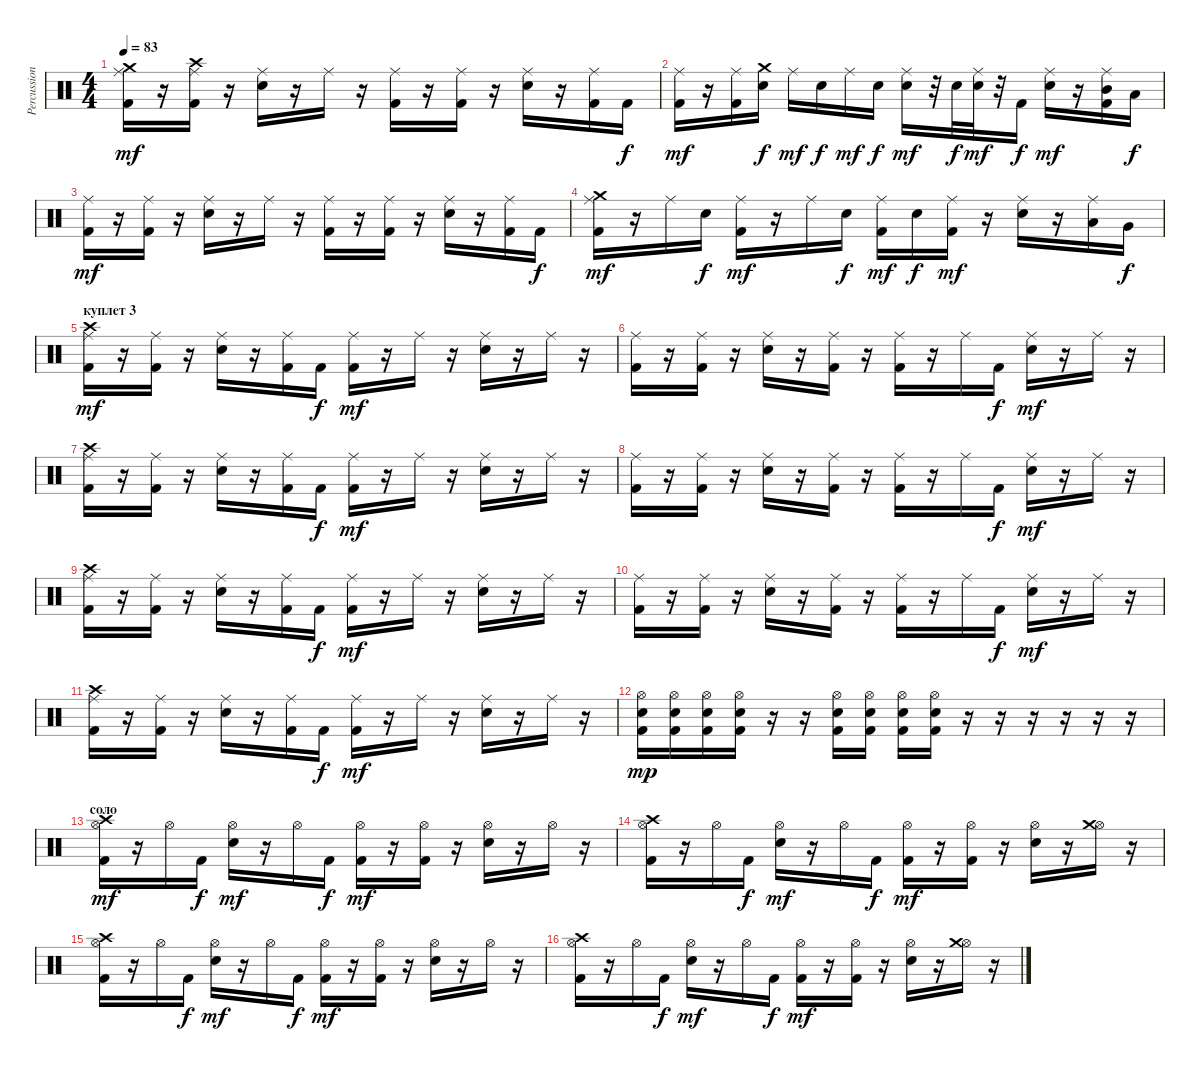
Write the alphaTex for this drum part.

\track ("Percussion" "Percussion") {instrument percussion}
\staff {score}
\articulation defaults
\ts (4 4)
\tempo 83
\clef neutral
\ks c
("Ride (middle)" "Crash medium (hit)" "Kick (hit) 2").16{dy mf} r.16 ("Ride (middle)" "Crash high (hit)" "Kick (hit) 2").16 r.16 ("Ride (middle)" "Electric Snare (hit)").16 r.16 "Ride (middle)".16 r.16 ("Ride (middle)" "Kick (hit) 2").16 r.16 ("Ride (middle)" "Kick (hit) 2").16 r.16 ("Ride (middle)" "Electric Snare (hit)").16 r.16 ("Ride (middle)" "Kick (hit) 2").16 "Kick (hit) 2".16{dy f} |
("Ride (middle)" "Kick (hit) 2").16{dy mf} r.16 ("Ride (middle)" "Kick (hit) 2").16 ("Crash medium (hit)" "Electric Snare (hit)").16{dy f} "Ride (middle)".16{dy mf} "Electric Snare (hit)".16{dy f} "Ride (middle)".16{dy mf} "Electric Snare (hit)".16{dy f} ("Ride (middle)" "Electric Snare (hit)").16{dy mf} r.32 "Electric Snare (hit)".32{dy f} ("Ride (middle)" "Electric Snare (hit)").32{dy mf} r.32 "Kick (hit) 2".16{dy f} ("Ride (middle)" "Electric Snare (hit)").16{dy mf} r.16 ("Ride (middle)" "Mid Tom (hit)" "Kick (hit) 2").16 "Low Tom (hit)".16{dy f} |
("Ride (middle)" "Kick (hit) 2").16{dy mf} r.16 ("Ride (middle)" "Kick (hit) 2").16 r.16 ("Ride (middle)" "Electric Snare (hit)").16 r.16 "Ride (middle)".16 r.16 ("Ride (middle)" "Kick (hit) 2").16 r.16 ("Ride (middle)" "Kick (hit) 2").16 r.16 ("Ride (middle)" "Electric Snare (hit)").16 r.16 ("Ride (middle)" "Kick (hit) 2").16 "Kick (hit) 2".16{dy f} |
("Ride (middle)" "Crash medium (hit)" "Kick (hit) 2").16{dy mf} r.16 "Ride (middle)".16 "Electric Snare (hit)".16{dy f} ("Ride (middle)" "Kick (hit) 2").16{dy mf} r.16 "Ride (middle)".16 "Electric Snare (hit)".16{dy f} ("Ride (middle)" "Kick (hit) 2").16{dy mf} "Electric Snare (hit)".16{dy f} ("Ride (middle)" "Kick (hit) 2").16{dy mf} r.16 ("Ride (middle)" "Electric Snare (hit)").16 r.16 ("Ride (middle)" "Low Tom (hit)").16 "Very Low Tom (hit)".16{dy f} |
\section ("" "куплет 3")
("Ride (middle)" "Crash high (hit)" "Kick (hit) 2").16{dy mf} r.16 ("Ride (middle)" "Kick (hit) 2").16 r.16 ("Ride (middle)" "Electric Snare (hit)").16 r.16 ("Ride (middle)" "Kick (hit) 2").16 "Kick (hit) 2".16{dy f} ("Ride (middle)" "Kick (hit) 2").16{dy mf} r.16 "Ride (middle)".16 r.16 ("Ride (middle)" "Electric Snare (hit)").16 r.16 "Ride (middle)".16 r.16 |
("Ride (middle)" "Kick (hit) 2").16 r.16 ("Ride (middle)" "Kick (hit) 2").16 r.16 ("Ride (middle)" "Electric Snare (hit)").16 r.16 ("Ride (middle)" "Kick (hit) 2").16 r.16 ("Ride (middle)" "Kick (hit) 2").16 r.16 "Ride (middle)".16 "Kick (hit) 2".16{dy f} ("Ride (middle)" "Electric Snare (hit)").16{dy mf} r.16 "Ride (middle)".16 r.16 |
("Ride (middle)" "Crash high (hit)" "Kick (hit) 2").16 r.16 ("Ride (middle)" "Kick (hit) 2").16 r.16 ("Ride (middle)" "Electric Snare (hit)").16 r.16 ("Ride (middle)" "Kick (hit) 2").16 "Kick (hit) 2".16{dy f} ("Ride (middle)" "Kick (hit) 2").16{dy mf} r.16 "Ride (middle)".16 r.16 ("Ride (middle)" "Electric Snare (hit)").16 r.16 "Ride (middle)".16 r.16 |
("Ride (middle)" "Kick (hit) 2").16 r.16 ("Ride (middle)" "Kick (hit) 2").16 r.16 ("Ride (middle)" "Electric Snare (hit)").16 r.16 ("Ride (middle)" "Kick (hit) 2").16 r.16 ("Ride (middle)" "Kick (hit) 2").16 r.16 "Ride (middle)".16 "Kick (hit) 2".16{dy f} ("Ride (middle)" "Electric Snare (hit)").16{dy mf} r.16 "Ride (middle)".16 r.16 |
("Ride (middle)" "Crash high (hit)" "Kick (hit) 2").16 r.16 ("Ride (middle)" "Kick (hit) 2").16 r.16 ("Ride (middle)" "Electric Snare (hit)").16 r.16 ("Ride (middle)" "Kick (hit) 2").16 "Kick (hit) 2".16{dy f} ("Ride (middle)" "Kick (hit) 2").16{dy mf} r.16 "Ride (middle)".16 r.16 ("Ride (middle)" "Electric Snare (hit)").16 r.16 "Ride (middle)".16 r.16 |
("Ride (middle)" "Kick (hit) 2").16 r.16 ("Ride (middle)" "Kick (hit) 2").16 r.16 ("Ride (middle)" "Electric Snare (hit)").16 r.16 ("Ride (middle)" "Kick (hit) 2").16 r.16 ("Ride (middle)" "Kick (hit) 2").16 r.16 "Ride (middle)".16 "Kick (hit) 2".16{dy f} ("Ride (middle)" "Electric Snare (hit)").16{dy mf} r.16 "Ride (middle)".16 r.16 |
("Ride (middle)" "Crash high (hit)" "Kick (hit) 2").16 r.16 ("Ride (middle)" "Kick (hit) 2").16 r.16 ("Ride (middle)" "Electric Snare (hit)").16 r.16 ("Ride (middle)" "Kick (hit) 2").16 "Kick (hit) 2".16{dy f} ("Ride (middle)" "Kick (hit) 2").16{dy mf} r.16 "Ride (middle)".16 r.16 ("Ride (middle)" "Electric Snare (hit)").16 r.16 "Ride (middle)".16 r.16 |
("Hi-Hat (open)" "Electric Snare (hit)" "Kick (hit) 2").16{dy mp} ("Hi-Hat (open)" "Electric Snare (hit)" "Kick (hit) 2").16 ("Hi-Hat (open)" "Electric Snare (hit)" "Kick (hit) 2").16 ("Hi-Hat (open)" "Electric Snare (hit)" "Kick (hit) 2").16 r.16 r.16 ("Hi-Hat (open)" "Electric Snare (hit)" "Kick (hit) 2").16 ("Hi-Hat (open)" "Electric Snare (hit)" "Kick (hit) 2").16 ("Hi-Hat (open)" "Electric Snare (hit)" "Kick (hit) 2").16 ("Hi-Hat (open)" "Electric Snare (hit)" "Kick (hit) 2").16 r.16 r.16 r.16 r.16 r.16 r.16 |
\section ("" "соло")
("Hi-Hat (open)" "Crash high (hit)" "Kick (hit) 2").16{dy mf} r.16 "Hi-Hat (open)".16 "Kick (hit) 2".16{dy f} ("Hi-Hat (open)" "Electric Snare (hit)").16{dy mf} r.16 "Hi-Hat (open)".16 "Kick (hit) 2".16{dy f} ("Hi-Hat (open)" "Kick (hit) 2").16{dy mf} r.16 ("Hi-Hat (open)" "Kick (hit) 2").16 r.16 ("Hi-Hat (open)" "Electric Snare (hit)").16 r.16 "Hi-Hat (open)".16 r.16 |
("Hi-Hat (open)" "Crash high (hit)" "Kick (hit) 2").16 r.16 "Hi-Hat (open)".16 "Kick (hit) 2".16{dy f} ("Hi-Hat (open)" "Electric Snare (hit)").16{dy mf} r.16 "Hi-Hat (open)".16 "Kick (hit) 2".16{dy f} ("Hi-Hat (open)" "Kick (hit) 2").16{dy mf} r.16 ("Hi-Hat (open)" "Kick (hit) 2").16 r.16 ("Hi-Hat (open)" "Electric Snare (hit)").16 r.16 ("Hi-Hat (open)" "Crash medium (hit)").16 r.16 |
("Hi-Hat (open)" "Crash high (hit)" "Kick (hit) 2").16 r.16 "Hi-Hat (open)".16 "Kick (hit) 2".16{dy f} ("Hi-Hat (open)" "Electric Snare (hit)").16{dy mf} r.16 "Hi-Hat (open)".16 "Kick (hit) 2".16{dy f} ("Hi-Hat (open)" "Kick (hit) 2").16{dy mf} r.16 ("Hi-Hat (open)" "Kick (hit) 2").16 r.16 ("Hi-Hat (open)" "Electric Snare (hit)").16 r.16 "Hi-Hat (open)".16 r.16 |
("Hi-Hat (open)" "Crash high (hit)" "Kick (hit) 2").16 r.16 "Hi-Hat (open)".16 "Kick (hit) 2".16{dy f} ("Hi-Hat (open)" "Electric Snare (hit)").16{dy mf} r.16 "Hi-Hat (open)".16 "Kick (hit) 2".16{dy f} ("Hi-Hat (open)" "Kick (hit) 2").16{dy mf} r.16 ("Hi-Hat (open)" "Kick (hit) 2").16 r.16 ("Hi-Hat (open)" "Electric Snare (hit)").16 r.16 ("Hi-Hat (open)" "Crash medium (hit)").16 r.16
